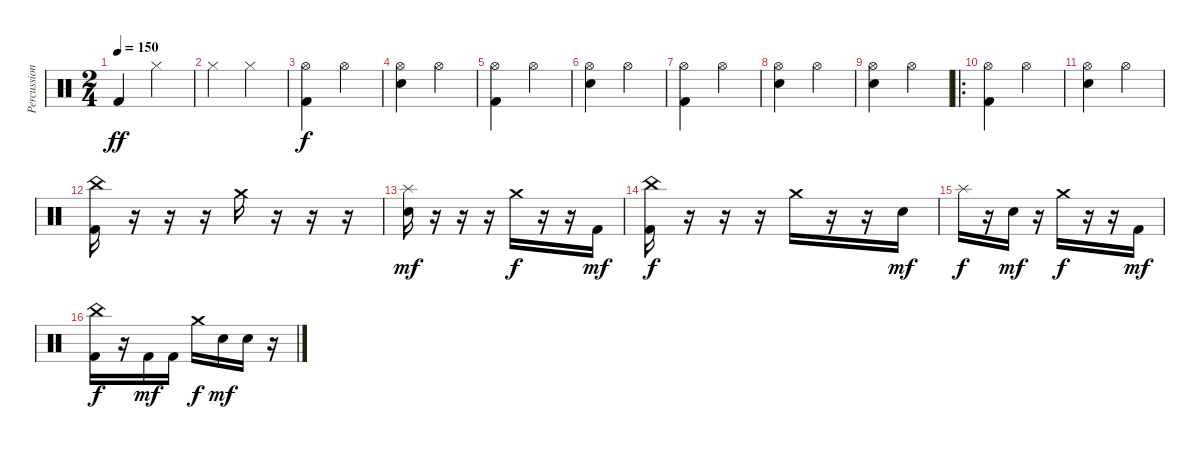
\track ("Percussion" "Percussion") {instrument percussion}
\staff {score}
\articulation defaults
\ts (2 4)
\tempo 150
\clef neutral
\ks c "Kick (hit) 2".4{dy ff} "Hi-Hat (closed)".4
|
"Hi-Hat (closed)".4 "Hi-Hat (closed)".4 |
("Kick (hit) 2" "Hi-Hat (open)").4{dy f} "Hi-Hat (open)".4 |
("Snare (hit) 2" "Hi-Hat (open)").4 "Hi-Hat (open)".4 |
("Kick (hit) 2" "Hi-Hat (open)").4 "Hi-Hat (open)".4 |
("Snare (hit) 2" "Hi-Hat (open)").4 "Hi-Hat (open)".4 |
("Kick (hit) 2" "Hi-Hat (open)").4 "Hi-Hat (open)".4 |
("Snare (hit) 2" "Hi-Hat (open)").4 "Hi-Hat (open)".4 |
("Snare (hit) 2" "Hi-Hat (open)").4 "Hi-Hat (open)".4 |
\ro
("Kick (hit) 2" "Hi-Hat (open)").4 "Hi-Hat (open)".4 |
("Snare (hit) 2" "Hi-Hat (open)").4 "Hi-Hat (open)".4 |
("Kick (hit) 2" "China (hit)").16 r.16 r.16 r.16 "Crash medium (hit)".16 r.16 r.16 r.16 |
("Snare (hit) 2" "Splash (hit)").16{dy mf} r.16 r.16 r.16 "Crash medium (hit)".16{dy f} r.16 r.16 "Kick (hit) 2".16{dy mf} |
("Kick (hit) 2" "China (hit)").16{dy f} r.16 r.16 r.16 "Crash medium (hit)".16 r.16 r.16 "Snare (hit) 2".16{dy mf} |
"Splash (hit)".16{dy f} r.16 "Snare (hit) 2".16{dy mf} r.16 "Crash medium (hit)".16{dy f} r.16 r.16 "Kick (hit) 2".16{dy mf} |
("Kick (hit) 2" "China (hit)").16{dy f} r.16 "Kick (hit) 2".16{dy mf} "Kick (hit) 2".16 "Crash medium (hit)".16{dy f} "Snare (hit) 2".16{dy mf} "Snare (hit) 2".16 r.16
